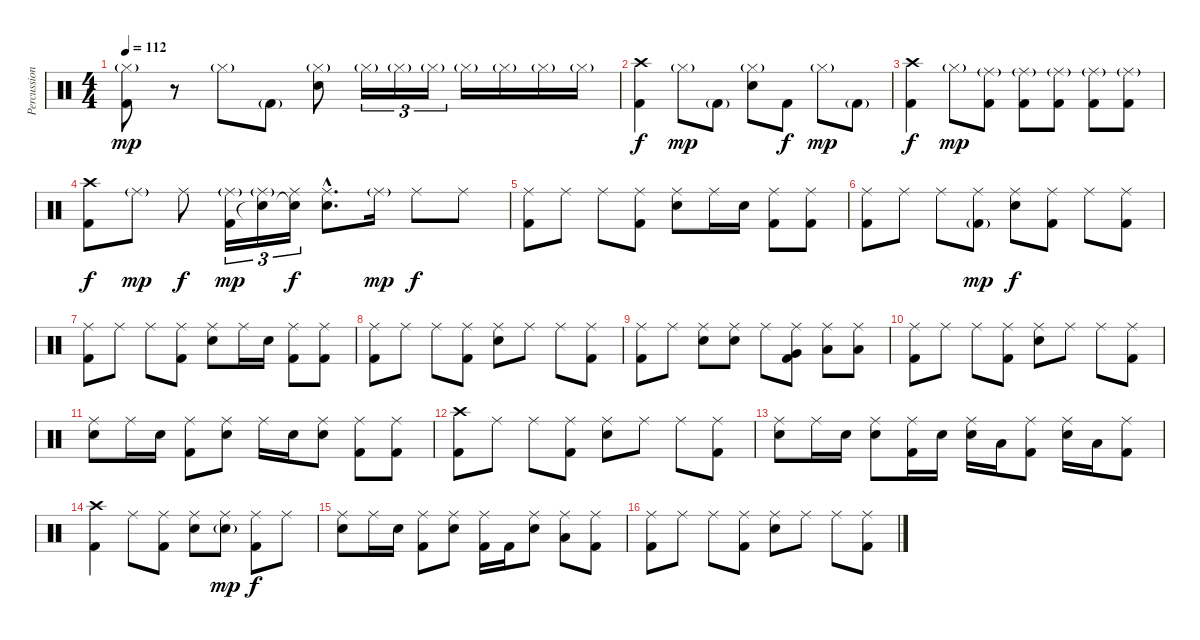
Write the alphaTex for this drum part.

\track ("Percussion" "Percussion") {instrument percussion}
\staff {score}
\articulation defaults
\ts (4 4)
\tempo 112
\clef neutral
\ks c
("Hi-Hat (closed)"{g} "Kick (hit) 2").8{dy mp} r.8 "Hi-Hat (closed)"{g}.8 "Kick (hit) 2"{g}.8 ("Hi-Hat (closed)"{g} "Snare (hit) 2").8 "Hi-Hat (closed)"{g}.16{tu (3 2)} "Hi-Hat (closed)"{g}.16{tu (3 2)} "Hi-Hat (closed)"{g}.16{tu (3 2)} "Hi-Hat (closed)"{g}.16 "Hi-Hat (closed)"{g}.16 "Hi-Hat (closed)"{g}.16 "Hi-Hat (closed)"{g}.16 |
("Crash high (hit)" "Kick (hit) 2").4{dy f} "Hi-Hat (closed)"{g}.8{dy mp} "Kick (hit) 2"{g}.8 ("Hi-Hat (closed)"{g} "Snare (hit) 2").8 "Kick (hit) 2".8{dy f} "Hi-Hat (closed)"{g}.8{dy mp} "Kick (hit) 2"{g}.8 |
("Crash high (hit)" "Kick (hit) 2").4{dy f} "Hi-Hat (closed)"{g}.8{dy mp} ("Ride (middle)"{g} "Kick (hit) 2").8 ("Ride (middle)"{g} "Kick (hit) 2").8 ("Ride (middle)"{g} "Kick (hit) 2").8 ("Ride (middle)"{g} "Kick (hit) 2").8 ("Ride (middle)"{g} "Kick (hit) 2").8 |
("Crash high (hit)" "Kick (hit) 2").8{dy f} "Ride (middle)"{g}.8{dy mp} "Ride (middle)".8{dy f} ("Ride (middle)"{g} "Kick (hit) 2").16{tu (3 2) dy mp} ("Ride (middle)"{g} "Snare (hit)"{t}).16{tu (3 2)} ("Ride (middle)" "Snare (hit)"{t}).16{tu (3 2) dy f} ("Ride (middle)"{hac} "Snare (hit) 2"{hac}).8{d} "Ride (middle)"{g}.16{dy mp} "Ride (middle)".8{dy f} "Ride (middle)".8 |
("Ride (middle)" "Kick (hit) 2").8 "Ride (middle)".8 "Ride (middle)".8 ("Ride (middle)" "Kick (hit) 2").8 ("Ride (middle)" "Snare (hit) 2").8 "Ride (middle)".16 "Snare (hit) 2".16 ("Ride (middle)" "Kick (hit) 2").8 ("Ride (middle)" "Kick (hit) 2").8 |
("Ride (middle)" "Kick (hit) 2").8 "Ride (middle)".8 "Ride (middle)".8 ("Ride (middle)" "Kick (hit) 2"{g}).8{dy mp} ("Ride (middle)" "Snare (hit) 2").8{dy f} ("Ride (middle)" "Kick (hit) 2").8 "Ride (middle)".8 ("Ride (middle)" "Kick (hit) 2").8 |
("Ride (middle)" "Kick (hit) 2").8 "Ride (middle)".8 "Ride (middle)".8 ("Ride (middle)" "Kick (hit) 2").8 ("Ride (middle)" "Snare (hit) 2").8 "Ride (middle)".16 "Snare (hit) 2".16 ("Ride (middle)" "Kick (hit) 2").8 ("Ride (middle)" "Kick (hit) 2").8 |
("Ride (middle)" "Kick (hit) 2").8 "Ride (middle)".8 "Ride (middle)".8 ("Ride (middle)" "Kick (hit) 2").8 ("Ride (middle)" "Snare (hit) 2").8 "Ride (middle)".8 "Ride (middle)".8 ("Ride (middle)" "Kick (hit) 2").8 |
("Ride (middle)" "Kick (hit) 2").8 "Ride (middle)".8 ("Ride (middle)" "Snare (hit) 2").8 ("Ride (middle)" "Snare (hit) 2").8 "Ride (middle)".8 ("Ride (middle)" "Very Low Tom (hit)" "Kick (hit) 2").8 ("Ride (middle)" "Low Floor Tom (hit)").8 ("Ride (middle)" "Low Floor Tom (hit)").8 |
("Ride (middle)" "Kick (hit) 2").8 "Ride (middle)".8 "Ride (middle)".8 ("Ride (middle)" "Kick (hit) 2").8 ("Ride (middle)" "Snare (hit) 2").8 "Ride (middle)".8 "Ride (middle)".8 ("Ride (middle)" "Kick (hit) 2").8 |
("Ride (middle)" "Snare (hit) 2").8 "Ride (middle)".16 "Snare (hit) 2".16 ("Ride (middle)" "Kick (hit) 2").8 ("Ride (middle)" "Snare (hit) 2").8 "Ride (middle)".16 "Snare (hit) 2".16 ("Ride (middle)" "Snare (hit) 2").8 ("Ride (middle)" "Kick (hit) 2").8 ("Ride (middle)" "Kick (hit) 2").8 |
("Crash high (hit)" "Kick (hit) 2").8 "Ride (middle)".8 "Ride (middle)".8 ("Ride (middle)" "Kick (hit) 2").8 ("Ride (middle)" "Snare (hit) 2").8 "Ride (middle)".8 "Ride (middle)".8 ("Ride (middle)" "Kick (hit) 2").8 |
("Ride (middle)" "Snare (hit) 2").8 "Ride (middle)".16 "Snare (hit) 2".16 ("Ride (middle)" "Snare (hit) 2").8 ("Ride (middle)" "Kick (hit) 2").16 "Snare (hit) 2".16 ("Ride (middle)" "Snare (hit) 2").16 "Low Floor Tom (hit)".16 ("Ride (middle)" "Kick (hit) 2").8 ("Ride (middle)" "Snare (hit) 2").16 "Low Floor Tom (hit)".16 ("Ride (middle)" "Kick (hit) 2").8 |
("Crash high (hit)" "Kick (hit) 2").4 "Ride (middle)".8 ("Ride (middle)" "Kick (hit) 2").8 ("Ride (middle)" "Snare (hit) 2").8 ("Ride (middle)" "Electric Snare (hit)"{g}).8{dy mp} ("Ride (middle)" "Kick (hit) 2").8{dy f} "Ride (middle)".8 |
("Ride (middle)" "Snare (hit) 2").8 "Ride (middle)".16 "Snare (hit) 2".16 ("Ride (middle)" "Kick (hit) 2").8 ("Ride (middle)" "Snare (hit) 2").8 ("Ride (middle)" "Kick (hit) 2").16 "Kick (hit) 2".16 ("Ride (middle)" "Snare (hit) 2").8 ("Ride (middle)" "Low Floor Tom (hit)").8 ("Ride (middle)" "Kick (hit) 2").8 |
("Ride (middle)" "Kick (hit) 2").8 "Ride (middle)".8 "Ride (middle)".8 ("Ride (middle)" "Kick (hit) 2").8 ("Ride (middle)" "Snare (hit) 2").8 "Ride (middle)".8 "Ride (middle)".8 ("Ride (middle)" "Kick (hit) 2").8
